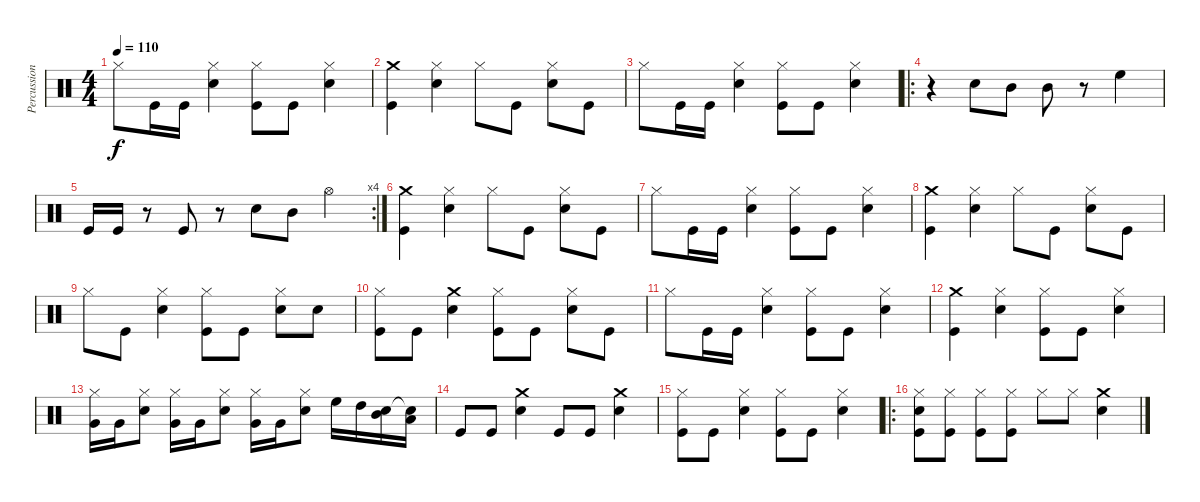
\track ("Percussion" "Percussion") {instrument percussion}
\staff {score}
\articulation defaults
\ts (4 4)
\tempo 110
\clef neutral
\ks c "Hi-Hat (closed)".8{dy f} "Kick (hit)".16 "Kick (hit)".16
("Snare (hit) 2" "Hi-Hat (closed)").4 ("Kick (hit)" "Hi-Hat (closed)").8 "Kick (hit)".8 ("Snare (hit) 2" "Hi-Hat (closed)").4 |
("Kick (hit)" "Crash medium (hit)").4 ("Hi-Hat (closed)" "Snare (hit) 2").4 "Hi-Hat (closed)".8 "Kick (hit)".8 ("Snare (hit) 2" "Hi-Hat (closed)").8 "Kick (hit)".8 |
"Hi-Hat (closed)".8 "Kick (hit)".16 "Kick (hit)".16 ("Snare (hit) 2" "Hi-Hat (closed)").4 ("Kick (hit)" "Hi-Hat (closed)").8 "Kick (hit)".8 ("Snare (hit) 2" "Hi-Hat (closed)").4 |
\ro
r.4 "Snare (hit) 2".8 "Mid Tom (hit)".8 "Mid Tom (hit)".8 r.8 "High Floor Tom (hit)".4 |
\rc 4 "Kick (hit)".16 "Kick (hit)".16
r.8 "Kick (hit)".8 r.8 "Snare (hit) 2".8 "Mid Tom (hit)".8 "Hi-Hat (open)".4 |
("Kick (hit)" "Crash medium (hit)").4 ("Hi-Hat (closed)" "Snare (hit) 2").4 "Hi-Hat (closed)".8 "Kick (hit)".8 ("Snare (hit) 2" "Hi-Hat (closed)").8 "Kick (hit)".8 |
"Hi-Hat (closed)".8 "Kick (hit)".16 "Kick (hit)".16 ("Snare (hit) 2" "Hi-Hat (closed)").4 ("Kick (hit)" "Hi-Hat (closed)").8 "Kick (hit)".8 ("Snare (hit) 2" "Hi-Hat (closed)").4 |
("Kick (hit)" "Crash medium (hit)").4 ("Snare (hit) 2" "Hi-Hat (closed)").4 "Hi-Hat (closed)".8 "Kick (hit)".8 ("Snare (hit) 2" "Hi-Hat (closed)").8 "Kick (hit)".8 |
"Hi-Hat (closed)".8 "Kick (hit)".8 ("Snare (hit) 2" "Hi-Hat (closed)").4 ("Kick (hit)" "Hi-Hat (closed)").8 "Kick (hit)".8 ("Snare (hit) 2" "Hi-Hat (closed)").8 "Snare (hit) 2".8 |
("Hi-Hat (closed)" "Kick (hit)").8 "Kick (hit)".8 ("Crash medium (hit)" "Snare (hit) 2").4 ("Hi-Hat (closed)" "Kick (hit)").8 "Kick (hit)".8 ("Snare (hit) 2" "Hi-Hat (closed)").8 "Kick (hit)".8 |
"Hi-Hat (closed)".8 "Kick (hit)".16 "Kick (hit)".16 ("Snare (hit) 2" "Hi-Hat (closed)").4 ("Kick (hit)" "Hi-Hat (closed)").8 "Kick (hit)".8 ("Snare (hit) 2" "Hi-Hat (closed)").4 |
("Kick (hit)" "Crash medium (hit)").4 ("Snare (hit) 2" "Hi-Hat (closed)").4 ("Hi-Hat (closed)" "Kick (hit)").8 "Kick (hit)".8 ("Snare (hit) 2" "Hi-Hat (closed)").4 |
("Hi-Hat (closed)" "Very Low Tom (hit)").16 "Very Low Tom (hit)".16 ("Hi-Hat (closed)" "Snare (hit) 2").8 ("Hi-Hat (closed)" "Very Low Tom (hit)").16 "Very Low Tom (hit)".16 ("Hi-Hat (closed)" "Snare (hit) 2").8 ("Hi-Hat (closed)" "Very Low Tom (hit)").16 "Very Low Tom (hit)".16 ("Hi-Hat (closed)" "Snare (hit) 2").8 "High Floor Tom (hit)".16 "High Tom (hit)".16 ("Mid Tom (hit)" "Snare (hit) 2").16 ("Low Tom (hit)" "Snare (hit)"{t}).16 |
"Kick (hit)".8 "Kick (hit)".8 ("Crash medium (hit)" "Snare (hit) 2").4 "Kick (hit)".8 "Kick (hit)".8 ("Crash medium (hit)" "Snare (hit) 2").4 |
("Kick (hit)" "Hi-Hat (closed)").8 "Kick (hit)".8 ("Snare (hit) 2" "Hi-Hat (closed)").4 ("Kick (hit)" "Hi-Hat (closed)").8 "Kick (hit)".8 ("Snare (hit) 2" "Hi-Hat (closed)").4 |
\ro
("Kick (hit)" "Hi-Hat (closed)" "Snare (hit) 2").8 ("Kick (hit)" "Hi-Hat (closed)").8 ("Kick (hit)" "Hi-Hat (closed)").8 ("Kick (hit)" "Hi-Hat (closed)").8 "Hi-Hat (closed)".8 "Hi-Hat (closed)".8 ("Crash medium (hit)" "Snare (hit) 2").4
